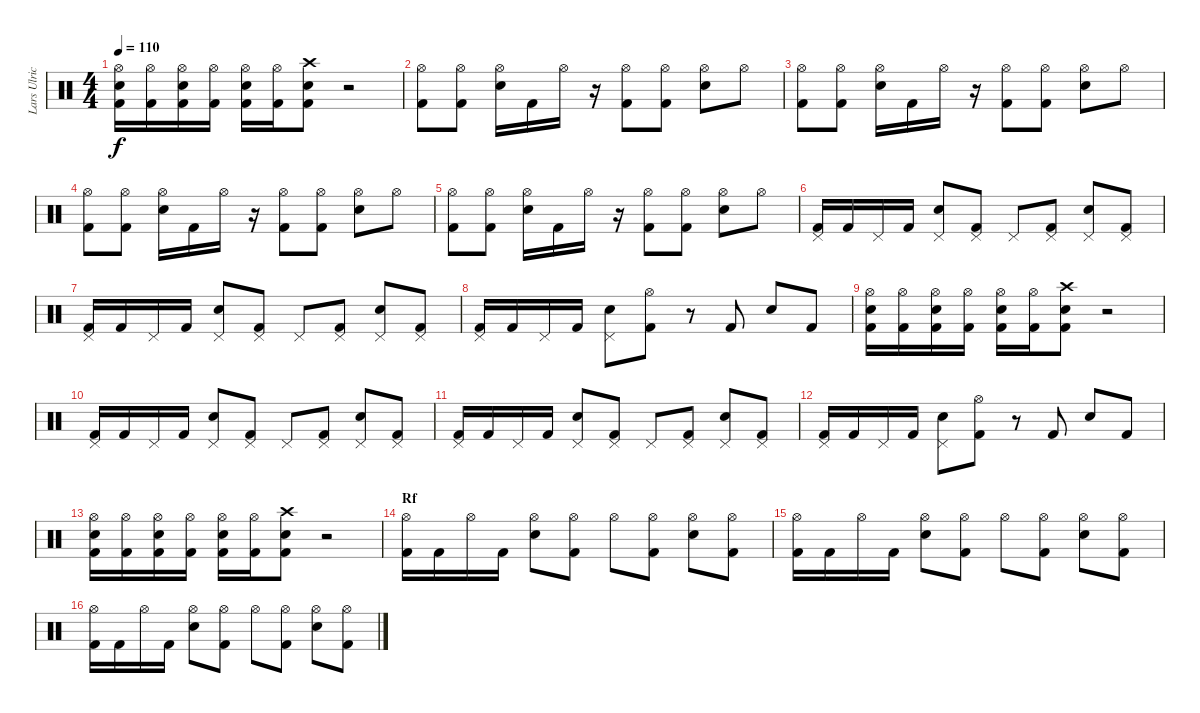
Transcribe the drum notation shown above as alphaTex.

\track ("Lars Ulrich" "Lars Ulric") {instrument percussion}
\staff {score}
\articulation defaults
\ts (4 4)
\tempo 110
\clef neutral
\ks c
("Hi-Hat (open)" "Electric Snare (hit)" "Kick (hit) 2").16{dy f} ("Hi-Hat (open)" "Kick (hit) 2").16 ("Hi-Hat (open)" "Electric Snare (hit)" "Kick (hit) 2").16 ("Hi-Hat (open)" "Kick (hit) 2").16 ("Hi-Hat (open)" "Electric Snare (hit)" "Kick (hit) 2").16 ("Hi-Hat (open)" "Kick (hit) 2").16 ("Crash high (hit)" "Electric Snare (hit)" "Kick (hit) 2").8 r.2 |
("Hi-Hat (open)" "Kick (hit) 2").8 ("Hi-Hat (open)" "Kick (hit) 2").8 ("Hi-Hat (open)" "Electric Snare (hit)").16 "Kick (hit) 2".16 "Hi-Hat (open)".16 r.16 ("Hi-Hat (open)" "Kick (hit) 2").8 ("Hi-Hat (open)" "Kick (hit) 2").8 ("Hi-Hat (open)" "Electric Snare (hit)").8 "Hi-Hat (open)".8 |
("Hi-Hat (open)" "Kick (hit) 2").8 ("Hi-Hat (open)" "Kick (hit) 2").8 ("Hi-Hat (open)" "Electric Snare (hit)").16 "Kick (hit) 2".16 "Hi-Hat (open)".16 r.16 ("Hi-Hat (open)" "Kick (hit) 2").8 ("Hi-Hat (open)" "Kick (hit) 2").8 ("Hi-Hat (open)" "Electric Snare (hit)").8 "Hi-Hat (open)".8 |
("Hi-Hat (open)" "Kick (hit) 2").8 ("Hi-Hat (open)" "Kick (hit) 2").8 ("Hi-Hat (open)" "Electric Snare (hit)").16 "Kick (hit) 2".16 "Hi-Hat (open)".16 r.16 ("Hi-Hat (open)" "Kick (hit) 2").8 ("Hi-Hat (open)" "Kick (hit) 2").8 ("Hi-Hat (open)" "Electric Snare (hit)").8 "Hi-Hat (open)".8 |
("Hi-Hat (open)" "Kick (hit) 2").8 ("Hi-Hat (open)" "Kick (hit) 2").8 ("Hi-Hat (open)" "Electric Snare (hit)").16 "Kick (hit) 2".16 "Hi-Hat (open)".16 r.16 ("Hi-Hat (open)" "Kick (hit) 2").8 ("Hi-Hat (open)" "Kick (hit) 2").8 ("Hi-Hat (open)" "Electric Snare (hit)").8 "Hi-Hat (open)".8 |
("Pedal Hi-Hat (hit)" "Kick (hit) 2").16 "Kick (hit) 2".16 "Pedal Hi-Hat (hit)".16 "Kick (hit) 2".16 ("Pedal Hi-Hat (hit)" "Electric Snare (hit)").8 ("Pedal Hi-Hat (hit)" "Kick (hit) 2").8 "Pedal Hi-Hat (hit)".8 ("Pedal Hi-Hat (hit)" "Kick (hit) 2").8 ("Pedal Hi-Hat (hit)" "Electric Snare (hit)").8 ("Pedal Hi-Hat (hit)" "Kick (hit) 2").8 |
("Pedal Hi-Hat (hit)" "Kick (hit) 2").16 "Kick (hit) 2".16 "Pedal Hi-Hat (hit)".16 "Kick (hit) 2".16 ("Pedal Hi-Hat (hit)" "Electric Snare (hit)").8 ("Pedal Hi-Hat (hit)" "Kick (hit) 2").8 "Pedal Hi-Hat (hit)".8 ("Pedal Hi-Hat (hit)" "Kick (hit) 2").8 ("Pedal Hi-Hat (hit)" "Electric Snare (hit)").8 ("Pedal Hi-Hat (hit)" "Kick (hit) 2").8 |
("Pedal Hi-Hat (hit)" "Kick (hit) 2").16 "Kick (hit) 2".16 "Pedal Hi-Hat (hit)".16 "Kick (hit) 2".16 ("Pedal Hi-Hat (hit)" "Electric Snare (hit)").8 ("Hi-Hat (open)" "Kick (hit) 2").8 r.8 "Kick (hit) 2".8 "Electric Snare (hit)".8 "Kick (hit) 2".8 |
("Hi-Hat (open)" "Electric Snare (hit)" "Kick (hit) 2").16 ("Hi-Hat (open)" "Kick (hit) 2").16 ("Hi-Hat (open)" "Electric Snare (hit)" "Kick (hit) 2").16 ("Hi-Hat (open)" "Kick (hit) 2").16 ("Hi-Hat (open)" "Electric Snare (hit)" "Kick (hit) 2").16 ("Hi-Hat (open)" "Kick (hit) 2").16 ("Crash high (hit)" "Electric Snare (hit)" "Kick (hit) 2").8 r.2 |
("Pedal Hi-Hat (hit)" "Kick (hit) 2").16 "Kick (hit) 2".16 "Pedal Hi-Hat (hit)".16 "Kick (hit) 2".16 ("Pedal Hi-Hat (hit)" "Electric Snare (hit)").8 ("Pedal Hi-Hat (hit)" "Kick (hit) 2").8 "Pedal Hi-Hat (hit)".8 ("Pedal Hi-Hat (hit)" "Kick (hit) 2").8 ("Pedal Hi-Hat (hit)" "Electric Snare (hit)").8 ("Pedal Hi-Hat (hit)" "Kick (hit) 2").8 |
("Pedal Hi-Hat (hit)" "Kick (hit) 2").16 "Kick (hit) 2".16 "Pedal Hi-Hat (hit)".16 "Kick (hit) 2".16 ("Pedal Hi-Hat (hit)" "Electric Snare (hit)").8 ("Pedal Hi-Hat (hit)" "Kick (hit) 2").8 "Pedal Hi-Hat (hit)".8 ("Pedal Hi-Hat (hit)" "Kick (hit) 2").8 ("Pedal Hi-Hat (hit)" "Electric Snare (hit)").8 ("Pedal Hi-Hat (hit)" "Kick (hit) 2").8 |
("Pedal Hi-Hat (hit)" "Kick (hit) 2").16 "Kick (hit) 2".16 "Pedal Hi-Hat (hit)".16 "Kick (hit) 2".16 ("Pedal Hi-Hat (hit)" "Electric Snare (hit)").8 ("Hi-Hat (open)" "Kick (hit) 2").8 r.8 "Kick (hit) 2".8 "Electric Snare (hit)".8 "Kick (hit) 2".8 |
("Hi-Hat (open)" "Electric Snare (hit)" "Kick (hit) 2").16 ("Hi-Hat (open)" "Kick (hit) 2").16 ("Hi-Hat (open)" "Electric Snare (hit)" "Kick (hit) 2").16 ("Hi-Hat (open)" "Kick (hit) 2").16 ("Hi-Hat (open)" "Electric Snare (hit)" "Kick (hit) 2").16 ("Hi-Hat (open)" "Kick (hit) 2").16 ("Crash high (hit)" "Electric Snare (hit)" "Kick (hit) 2").8 r.2 |
\section ("" "Rf")
("Hi-Hat (open)" "Kick (hit) 2").16 "Kick (hit) 2".16 "Hi-Hat (open)".16 "Kick (hit) 2".16 ("Hi-Hat (open)" "Electric Snare (hit)").8 ("Hi-Hat (open)" "Kick (hit) 2").8 "Hi-Hat (open)".8 ("Hi-Hat (open)" "Kick (hit) 2").8 ("Hi-Hat (open)" "Electric Snare (hit)").8 ("Hi-Hat (open)" "Kick (hit) 2").8 |
("Hi-Hat (open)" "Kick (hit) 2").16 "Kick (hit) 2".16 "Hi-Hat (open)".16 "Kick (hit) 2".16 ("Hi-Hat (open)" "Electric Snare (hit)").8 ("Hi-Hat (open)" "Kick (hit) 2").8 "Hi-Hat (open)".8 ("Hi-Hat (open)" "Kick (hit) 2").8 ("Hi-Hat (open)" "Electric Snare (hit)").8 ("Hi-Hat (open)" "Kick (hit) 2").8 |
("Hi-Hat (open)" "Kick (hit) 2").16 "Kick (hit) 2".16 "Hi-Hat (open)".16 "Kick (hit) 2".16 ("Hi-Hat (open)" "Electric Snare (hit)").8 ("Hi-Hat (open)" "Kick (hit) 2").8 "Hi-Hat (open)".8 ("Hi-Hat (open)" "Kick (hit) 2").8 ("Hi-Hat (open)" "Electric Snare (hit)").8 ("Hi-Hat (open)" "Kick (hit) 2").8
